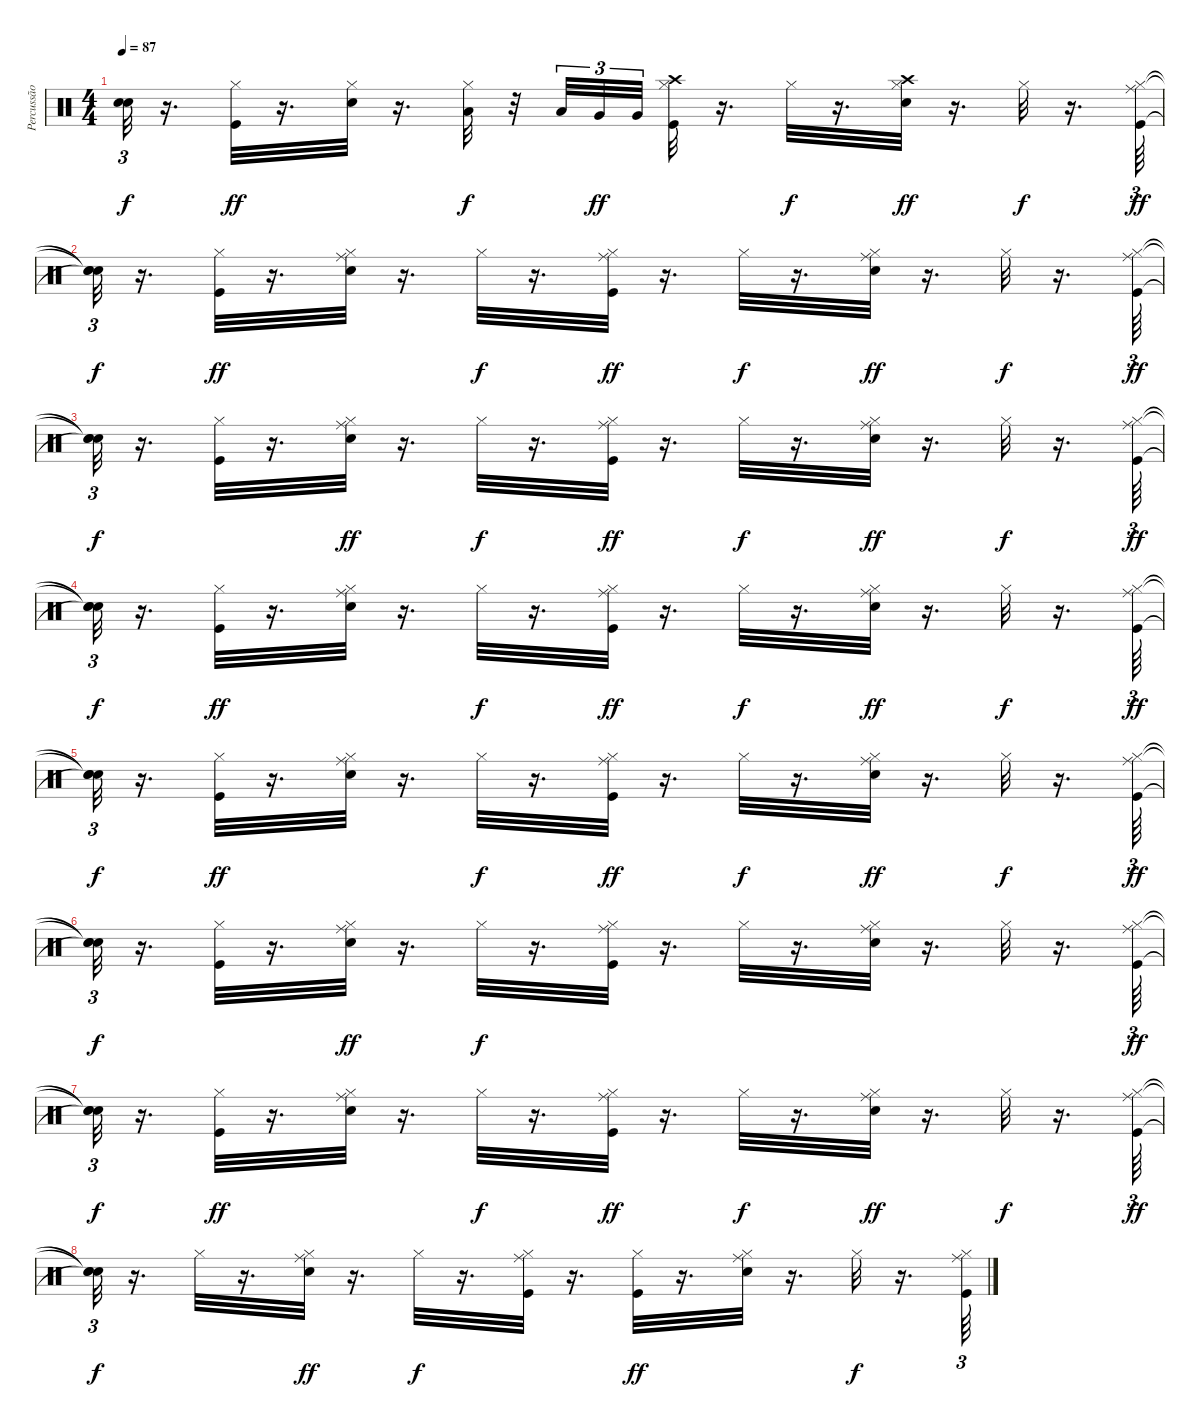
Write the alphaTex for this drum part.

\track ("Percussão" "Percussão") {instrument percussion}
\staff {score}
\articulation defaults
\ts (4 4)
\tempo 87
\clef neutral
\ks c
("Snare (hit)"{t} "Snare (hit)"{t}).32{tu (3 2) dy f} r.16{d} ("Kick (hit)" "Hi-Hat (closed)").32{dy ff} r.16{d} ("Electric Snare (hit)" "Hi-Hat (closed)").32 r.16{d} ("Hi-Hat (closed)" "Low Tom (hit)").32{dy f} r.32 "Low Tom (hit)".32{tu (3 2)} "Very Low Tom (hit)".32{tu (3 2) dy ff} "Very Low Tom (hit)".32{tu (3 2) beam splitsecondary} ("Kick (hit)" "Hi-Hat (closed)" "Crash high (hit)").32 r.16{d} "Hi-Hat (closed)".32{dy f} r.16{d} ("Electric Snare (hit)" "Hi-Hat (closed)" "Crash high (hit)").32{dy ff} r.16{d} "Hi-Hat (closed)".32{dy f} r.16{d} ("Kick (hit)" "Hi-Hat (closed)" "Ride (middle)").64{tu (3 2) dy ff} |
("Snare (hit)"{t} "Snare (hit)"{t} "Snare (hit)"{t}).32{tu (3 2) dy f} r.16{d} ("Kick (hit)" "Hi-Hat (closed)").32{dy ff} r.16{d} ("Electric Snare (hit)" "Hi-Hat (closed)" "Ride (middle)").32 r.16{d} "Hi-Hat (closed)".32{dy f} r.16{d} ("Kick (hit)" "Hi-Hat (closed)" "Ride (middle)").32{dy ff} r.16{d} "Hi-Hat (closed)".32{dy f} r.16{d} ("Electric Snare (hit)" "Hi-Hat (closed)" "Ride (middle)").32{dy ff} r.16{d} "Hi-Hat (closed)".32{dy f} r.16{d} ("Kick (hit)" "Hi-Hat (closed)" "Ride (middle)").64{tu (3 2) dy ff} |
("Snare (hit)"{t} "Snare (hit)"{t} "Snare (hit)"{t}).32{tu (3 2) dy f} r.16{d} ("Kick (hit)" "Hi-Hat (closed)").32 r.16{d} ("Electric Snare (hit)" "Hi-Hat (closed)" "Ride (middle)").32{dy ff} r.16{d} "Hi-Hat (closed)".32{dy f} r.16{d} ("Kick (hit)" "Hi-Hat (closed)" "Ride (middle)").32{dy ff} r.16{d} "Hi-Hat (closed)".32{dy f} r.16{d} ("Electric Snare (hit)" "Hi-Hat (closed)" "Ride (middle)").32{dy ff} r.16{d} "Hi-Hat (closed)".32{dy f} r.16{d} ("Kick (hit)" "Hi-Hat (closed)" "Ride (middle)").64{tu (3 2) dy ff} |
("Snare (hit)"{t} "Snare (hit)"{t} "Snare (hit)"{t}).32{tu (3 2) dy f} r.16{d} ("Kick (hit)" "Hi-Hat (closed)").32{dy ff} r.16{d} ("Electric Snare (hit)" "Hi-Hat (closed)" "Ride (middle)").32 r.16{d} "Hi-Hat (closed)".32{dy f} r.16{d} ("Kick (hit)" "Hi-Hat (closed)" "Ride (middle)").32{dy ff} r.16{d} "Hi-Hat (closed)".32{dy f} r.16{d} ("Electric Snare (hit)" "Hi-Hat (closed)" "Ride (middle)").32{dy ff} r.16{d} "Hi-Hat (closed)".32{dy f} r.16{d} ("Kick (hit)" "Hi-Hat (closed)" "Ride (middle)").64{tu (3 2) dy ff} |
("Snare (hit)"{t} "Snare (hit)"{t} "Snare (hit)"{t}).32{tu (3 2) dy f} r.16{d} ("Kick (hit)" "Hi-Hat (closed)").32{dy ff} r.16{d} ("Electric Snare (hit)" "Hi-Hat (closed)" "Ride (middle)").32 r.16{d} "Hi-Hat (closed)".32{dy f} r.16{d} ("Kick (hit)" "Hi-Hat (closed)" "Ride (middle)").32{dy ff} r.16{d} "Hi-Hat (closed)".32{dy f} r.16{d} ("Electric Snare (hit)" "Hi-Hat (closed)" "Ride (middle)").32{dy ff} r.16{d} "Hi-Hat (closed)".32{dy f} r.16{d} ("Kick (hit)" "Hi-Hat (closed)" "Ride (middle)").64{tu (3 2) dy ff} |
("Snare (hit)"{t} "Snare (hit)"{t} "Snare (hit)"{t}).32{tu (3 2) dy f} r.16{d} ("Kick (hit)" "Hi-Hat (closed)").32 r.16{d} ("Electric Snare (hit)" "Hi-Hat (closed)" "Ride (middle)").32{dy ff} r.16{d} "Hi-Hat (closed)".32{dy f} r.16{d} ("Kick (hit)" "Hi-Hat (closed)" "Ride (middle)").32 r.16{d} "Hi-Hat (closed)".32 r.16{d} ("Electric Snare (hit)" "Hi-Hat (closed)" "Ride (middle)").32 r.16{d} "Hi-Hat (closed)".32 r.16{d} ("Kick (hit)" "Hi-Hat (closed)" "Ride (middle)").64{tu (3 2) dy ff} |
("Snare (hit)"{t} "Snare (hit)"{t} "Snare (hit)"{t}).32{tu (3 2) dy f} r.16{d} ("Kick (hit)" "Hi-Hat (closed)").32{dy ff} r.16{d} ("Electric Snare (hit)" "Hi-Hat (closed)" "Ride (middle)").32 r.16{d} "Hi-Hat (closed)".32{dy f} r.16{d} ("Kick (hit)" "Hi-Hat (closed)" "Ride (middle)").32{dy ff} r.16{d} "Hi-Hat (closed)".32{dy f} r.16{d} ("Electric Snare (hit)" "Hi-Hat (closed)" "Ride (middle)").32{dy ff} r.16{d} "Hi-Hat (closed)".32{dy f} r.16{d} ("Kick (hit)" "Hi-Hat (closed)" "Ride (middle)").64{tu (3 2) dy ff} |
("Snare (hit)"{t} "Snare (hit)"{t} "Snare (hit)"{t}).32{tu (3 2) dy f} r.16{d} "Hi-Hat (closed)".32 r.16{d} ("Electric Snare (hit)" "Hi-Hat (closed)" "Ride (middle)").32{dy ff} r.16{d} "Hi-Hat (closed)".32{dy f} r.16{d} ("Kick (hit)" "Hi-Hat (closed)" "Ride (middle)").32 r.16{d} ("Kick (hit)" "Hi-Hat (closed)").32{dy ff} r.16{d} ("Electric Snare (hit)" "Hi-Hat (closed)" "Ride (middle)").32 r.16{d} "Hi-Hat (closed)".32{dy f} r.16{d} ("Kick (hit)" "Hi-Hat (closed)" "Ride (middle)").64{tu (3 2)}
